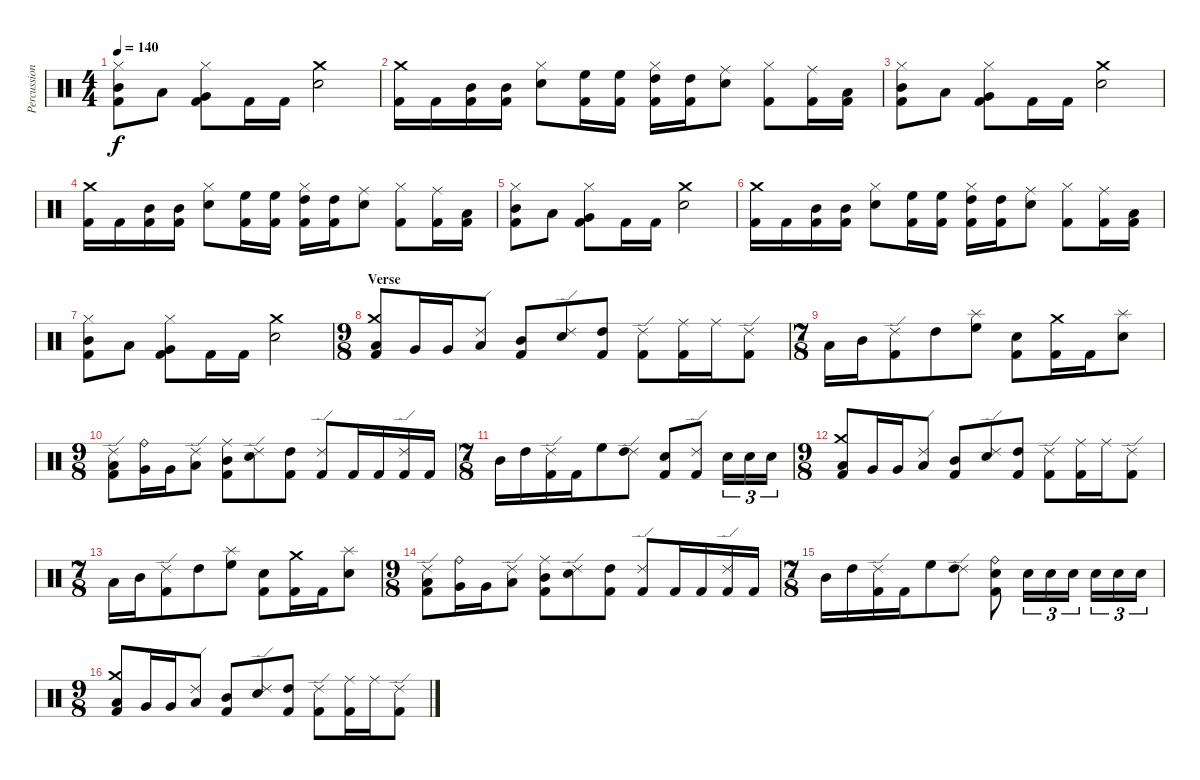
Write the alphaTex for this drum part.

\track ("Percussion" "Percussion") {instrument percussion}
\staff {score}
\articulation defaults
\ts (4 4)
\tempo 140
\clef neutral
\ks c
("Hi-Hat (closed)" "Mid Tom (hit)" "Kick (hit) 2").8{dy f} "Low Tom (hit)".8 ("Hi-Hat (closed)" "Very Low Tom (hit)" "Kick (hit) 2").8 "Kick (hit) 2".16 "Kick (hit) 2".16 ("Crash medium (hit)" "Electric Snare (hit)").2 |
("Crash medium (hit)" "Kick (hit) 2").16 "Kick (hit) 2".16 ("Mid Tom (hit)" "Kick (hit) 2").16 ("Mid Tom (hit)" "Kick (hit) 2").16 ("Hi-Hat (closed)" "Electric Snare (hit)").8 ("High Floor Tom (hit)" "Kick (hit) 2").16 ("High Floor Tom (hit)" "Kick (hit) 2").16 ("Hi-Hat (closed)" "High Tom (hit)" "Kick (hit) 2").16 ("High Tom (hit)" "Kick (hit) 2").16 ("Ride (middle)" "Electric Snare (hit)").8 ("Hi-Hat (closed)" "Kick (hit) 2").8 ("Ride (middle)" "Kick (hit) 2").16 ("Low Tom (hit)" "Kick (hit) 2").16 |
("Hi-Hat (closed)" "Mid Tom (hit)" "Kick (hit) 2").8 "Low Tom (hit)".8 ("Hi-Hat (closed)" "Very Low Tom (hit)" "Kick (hit) 2").8 "Kick (hit) 2".16 "Kick (hit) 2".16 ("Crash medium (hit)" "Electric Snare (hit)").2 |
("Crash medium (hit)" "Kick (hit) 2").16 "Kick (hit) 2".16 ("Mid Tom (hit)" "Kick (hit) 2").16 ("Mid Tom (hit)" "Kick (hit) 2").16 ("Hi-Hat (closed)" "Electric Snare (hit)").8 ("High Floor Tom (hit)" "Kick (hit) 2").16 ("High Floor Tom (hit)" "Kick (hit) 2").16 ("Hi-Hat (closed)" "High Tom (hit)" "Kick (hit) 2").16 ("High Tom (hit)" "Kick (hit) 2").16 ("Ride (middle)" "Electric Snare (hit)").8 ("Hi-Hat (closed)" "Kick (hit) 2").8 ("Ride (middle)" "Kick (hit) 2").16 ("Low Tom (hit)" "Kick (hit) 2").16 |
("Hi-Hat (closed)" "Mid Tom (hit)" "Kick (hit) 2").8 "Low Tom (hit)".8 ("Hi-Hat (closed)" "Very Low Tom (hit)" "Kick (hit) 2").8 "Kick (hit) 2".16 "Kick (hit) 2".16 ("Crash medium (hit)" "Electric Snare (hit)").2 |
("Crash medium (hit)" "Kick (hit) 2").16 "Kick (hit) 2".16 ("Mid Tom (hit)" "Kick (hit) 2").16 ("Mid Tom (hit)" "Kick (hit) 2").16 ("Hi-Hat (closed)" "Electric Snare (hit)").8 ("High Floor Tom (hit)" "Kick (hit) 2").16 ("High Floor Tom (hit)" "Kick (hit) 2").16 ("Hi-Hat (closed)" "High Tom (hit)" "Kick (hit) 2").16 ("High Tom (hit)" "Kick (hit) 2").16 ("Ride (middle)" "Electric Snare (hit)").8 ("Hi-Hat (closed)" "Kick (hit) 2").8 ("Ride (middle)" "Kick (hit) 2").16 ("Low Tom (hit)" "Kick (hit) 2").16 |
("Hi-Hat (closed)" "Mid Tom (hit)" "Kick (hit) 2").8 "Low Tom (hit)".8 ("Hi-Hat (closed)" "Very Low Tom (hit)" "Kick (hit) 2").8 "Kick (hit) 2".16 "Kick (hit) 2".16 ("Crash medium (hit)" "Electric Snare (hit)").2 |
\ts (9 8)
\section ("" "Verse")
("Crash medium (hit)" "Low Floor Tom (hit)" "Kick (hit) 2").8 "Very Low Tom (hit)".16 "Very Low Tom (hit)".16 ("Ride (edge) 2" "Low Tom (hit)").8 ("Mid Tom (hit)" "Kick (hit) 2").8 ("Ride (edge) 2" "Electric Snare (hit)").8 ("High Tom (hit)" "Kick (hit) 2").8 ("Ride (edge) 2" "Kick (hit) 2").8 ("Ride (middle)" "Kick (hit) 2").16 "Ride (middle)".16 ("Ride (edge) 2" "Kick (hit) 2").8 |
\ts (7 8)
"Low Tom (hit)".16 "Mid Tom (hit)".16 ("Ride (edge) 2" "Kick (hit) 2").8 "High Tom (hit)".8 ("Splash (hit)" "High Floor Tom (hit)").8 ("Electric Snare (hit)" "Kick (hit) 2").8 ("Crash medium (hit)" "Kick (hit) 2").16 "Kick (hit) 2".16 ("Splash (hit)" "Electric Snare (hit)").8 |
\ts (9 8)
("Ride (edge) 2" "Low Floor Tom (hit)" "Kick (hit) 2").8 ("Ride (bell)" "Very Low Tom (hit)").16 "Very Low Tom (hit)".16 ("Ride (edge) 2" "Low Tom (hit)").8 ("Ride (middle)" "Mid Tom (hit)" "Kick (hit) 2").8 ("Ride (edge) 2" "Electric Snare (hit)").8 ("High Tom (hit)" "Kick (hit) 2").8 ("Ride (edge) 2" "Kick (hit) 2").8 "Kick (hit) 2".16 "Kick (hit) 2".16 ("Ride (edge) 2" "Kick (hit) 2").16 "Kick (hit) 2".16 |
\ts (7 8)
"Mid Tom (hit)".16 "High Tom (hit)".16 ("Ride (edge) 2" "Kick (hit) 2").16 "Kick (hit) 2".16 "High Floor Tom (hit)".8 ("Ride (edge) 2" "High Tom (hit)").8 ("Electric Snare (hit)" "Kick (hit) 2").8 ("Ride (edge) 2" "Kick (hit) 2").8 "Electric Snare (hit)".16{tu (3 2)} "Electric Snare (hit)".16{tu (3 2)} "Electric Snare (hit)".16{tu (3 2)} |
\ts (9 8)
("Crash medium (hit)" "Low Floor Tom (hit)" "Kick (hit) 2").8 "Very Low Tom (hit)".16 "Very Low Tom (hit)".16 ("Ride (edge) 2" "Low Tom (hit)").8 ("Mid Tom (hit)" "Kick (hit) 2").8 ("Ride (edge) 2" "Electric Snare (hit)").8 ("High Tom (hit)" "Kick (hit) 2").8 ("Ride (edge) 2" "Kick (hit) 2").8 ("Ride (middle)" "Kick (hit) 2").16 "Ride (middle)".16 ("Ride (edge) 2" "Kick (hit) 2").8 |
\ts (7 8)
"Low Tom (hit)".16 "Mid Tom (hit)".16 ("Ride (edge) 2" "Kick (hit) 2").8 "High Tom (hit)".8 ("Splash (hit)" "High Floor Tom (hit)").8 ("Electric Snare (hit)" "Kick (hit) 2").8 ("Crash medium (hit)" "Kick (hit) 2").16 "Kick (hit) 2".16 ("Splash (hit)" "Electric Snare (hit)").8 |
\ts (9 8)
("Ride (edge) 2" "Low Floor Tom (hit)" "Kick (hit) 2").8 ("Ride (bell)" "Very Low Tom (hit)").16 "Very Low Tom (hit)".16 ("Ride (edge) 2" "Low Tom (hit)").8 ("Ride (middle)" "Mid Tom (hit)" "Kick (hit) 2").8 ("Ride (edge) 2" "Electric Snare (hit)").8 ("High Tom (hit)" "Kick (hit) 2").8 ("Ride (edge) 2" "Kick (hit) 2").8 "Kick (hit) 2".16 "Kick (hit) 2".16 ("Ride (edge) 2" "Kick (hit) 2").16 "Kick (hit) 2".16 |
\ts (7 8)
"Mid Tom (hit)".16 "High Tom (hit)".16 ("Ride (edge) 2" "Kick (hit) 2").16 "Kick (hit) 2".16 "High Floor Tom (hit)".8 ("Ride (edge) 2" "High Tom (hit)").8 ("Ride (bell)" "Electric Snare (hit)" "Kick (hit) 2").8 "Electric Snare (hit)".16{tu (3 2)} "Electric Snare (hit)".16{tu (3 2)} "Electric Snare (hit)".16{tu (3 2)} "Electric Snare (hit)".16{tu (3 2)} "Electric Snare (hit)".16{tu (3 2)} "Electric Snare (hit)".16{tu (3 2)} |
\ts (9 8)
("Crash medium (hit)" "Low Floor Tom (hit)" "Kick (hit) 2").8 "Very Low Tom (hit)".16 "Very Low Tom (hit)".16 ("Ride (edge) 2" "Low Tom (hit)").8 ("Mid Tom (hit)" "Kick (hit) 2").8 ("Ride (edge) 2" "Electric Snare (hit)").8 ("High Tom (hit)" "Kick (hit) 2").8 ("Ride (edge) 2" "Kick (hit) 2").8 ("Ride (middle)" "Kick (hit) 2").16 "Ride (middle)".16 ("Ride (edge) 2" "Kick (hit) 2").8
